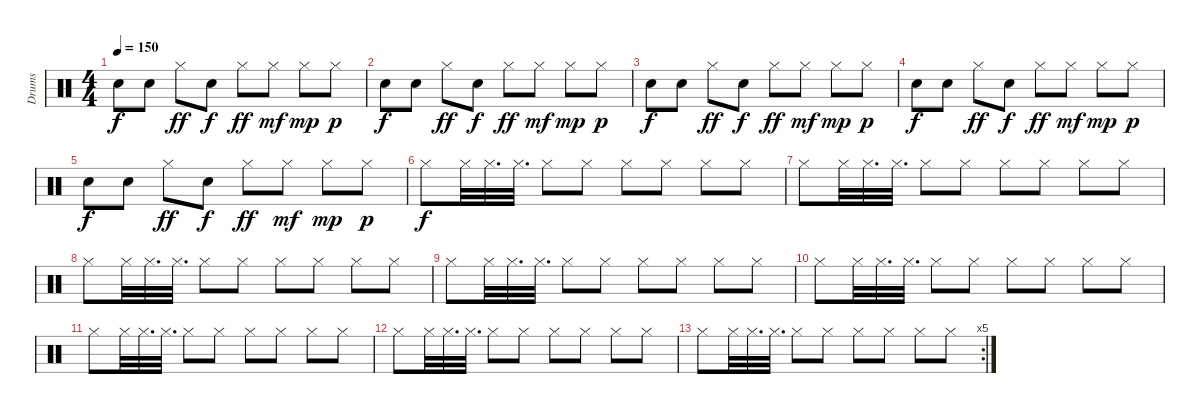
\track ("Drums" "Drums") {instrument percussion}
\staff {score}
\articulation defaults
\ts (4 4)
\tempo 150
\clef neutral
\ks c "Snare (hit) 2".8{dy f} "Snare (hit) 2".8 "Hi-Hat (closed)".8{dy ff} "Snare (hit) 2".8{dy f} "Hi-Hat (closed)".8{dy ff} "Hi-Hat (closed)".8{dy mf} "Hi-Hat (closed)".8{dy mp} "Hi-Hat (closed)".8{dy p}
|
"Snare (hit) 2".8{dy f} "Snare (hit) 2".8 "Hi-Hat (closed)".8{dy ff} "Snare (hit) 2".8{dy f} "Hi-Hat (closed)".8{dy ff} "Hi-Hat (closed)".8{dy mf} "Hi-Hat (closed)".8{dy mp} "Hi-Hat (closed)".8{dy p} |
"Snare (hit) 2".8{dy f} "Snare (hit) 2".8 "Hi-Hat (closed)".8{dy ff} "Snare (hit) 2".8{dy f} "Hi-Hat (closed)".8{dy ff} "Hi-Hat (closed)".8{dy mf} "Hi-Hat (closed)".8{dy mp} "Hi-Hat (closed)".8{dy p} |
"Snare (hit) 2".8{dy f} "Snare (hit) 2".8 "Hi-Hat (closed)".8{dy ff} "Snare (hit) 2".8{dy f} "Hi-Hat (closed)".8{dy ff} "Hi-Hat (closed)".8{dy mf} "Hi-Hat (closed)".8{dy mp} "Hi-Hat (closed)".8{dy p} |
"Snare (hit) 2".8{dy f} "Snare (hit) 2".8 "Hi-Hat (closed)".8{dy ff} "Snare (hit) 2".8{dy f} "Hi-Hat (closed)".8{dy ff} "Hi-Hat (closed)".8{dy mf} "Hi-Hat (closed)".8{dy mp} "Hi-Hat (closed)".8{dy p} |
"Hi-Hat (closed)".8{dy f} "Hi-Hat (closed)".32 "Hi-Hat (closed)".32{d} "Hi-Hat (closed)".32{d} "Hi-Hat (closed)".8 "Hi-Hat (closed)".8 "Hi-Hat (closed)".8 "Hi-Hat (closed)".8 "Hi-Hat (closed)".8 "Hi-Hat (closed)".8 |
"Hi-Hat (closed)".8 "Hi-Hat (closed)".32 "Hi-Hat (closed)".32{d} "Hi-Hat (closed)".32{d} "Hi-Hat (closed)".8 "Hi-Hat (closed)".8 "Hi-Hat (closed)".8 "Hi-Hat (closed)".8 "Hi-Hat (closed)".8 "Hi-Hat (closed)".8 |
"Hi-Hat (closed)".8 "Hi-Hat (closed)".32 "Hi-Hat (closed)".32{d} "Hi-Hat (closed)".32{d} "Hi-Hat (closed)".8 "Hi-Hat (closed)".8 "Hi-Hat (closed)".8 "Hi-Hat (closed)".8 "Hi-Hat (closed)".8 "Hi-Hat (closed)".8 |
"Hi-Hat (closed)".8 "Hi-Hat (closed)".32 "Hi-Hat (closed)".32{d} "Hi-Hat (closed)".32{d} "Hi-Hat (closed)".8 "Hi-Hat (closed)".8 "Hi-Hat (closed)".8 "Hi-Hat (closed)".8 "Hi-Hat (closed)".8 "Hi-Hat (closed)".8 |
"Hi-Hat (closed)".8 "Hi-Hat (closed)".32 "Hi-Hat (closed)".32{d} "Hi-Hat (closed)".32{d} "Hi-Hat (closed)".8 "Hi-Hat (closed)".8 "Hi-Hat (closed)".8 "Hi-Hat (closed)".8 "Hi-Hat (closed)".8 "Hi-Hat (closed)".8 |
"Hi-Hat (closed)".8 "Hi-Hat (closed)".32 "Hi-Hat (closed)".32{d} "Hi-Hat (closed)".32{d} "Hi-Hat (closed)".8 "Hi-Hat (closed)".8 "Hi-Hat (closed)".8 "Hi-Hat (closed)".8 "Hi-Hat (closed)".8 "Hi-Hat (closed)".8 |
"Hi-Hat (closed)".8 "Hi-Hat (closed)".32 "Hi-Hat (closed)".32{d} "Hi-Hat (closed)".32{d} "Hi-Hat (closed)".8 "Hi-Hat (closed)".8 "Hi-Hat (closed)".8 "Hi-Hat (closed)".8 "Hi-Hat (closed)".8 "Hi-Hat (closed)".8 |
\rc 5 "Hi-Hat (closed)".8 "Hi-Hat (closed)".32 "Hi-Hat (closed)".32{d} "Hi-Hat (closed)".32{d} "Hi-Hat (closed)".8 "Hi-Hat (closed)".8 "Hi-Hat (closed)".8 "Hi-Hat (closed)".8 "Hi-Hat (closed)".8 "Hi-Hat (closed)".8
